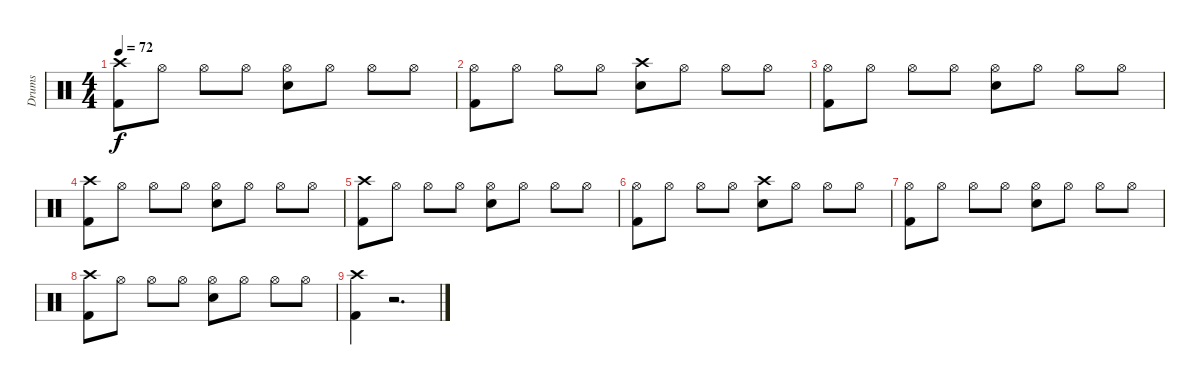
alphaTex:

\track ("Drums" "Drums") {instrument percussion}
\staff {score}
\articulation defaults
\ts (4 4)
\tempo 72
\clef neutral
\ks c
("Crash high (hit)" "Kick (hit) 2").8{dy f} "Hi-Hat (open)".8 "Hi-Hat (open)".8 "Hi-Hat (open)".8 ("Hi-Hat (open)" "Electric Snare (hit)").8 "Hi-Hat (open)".8 "Hi-Hat (open)".8 "Hi-Hat (open)".8 |
("Hi-Hat (open)" "Kick (hit) 2").8 "Hi-Hat (open)".8 "Hi-Hat (open)".8 "Hi-Hat (open)".8 ("Crash high (hit)" "Electric Snare (hit)").8 "Hi-Hat (open)".8 "Hi-Hat (open)".8 "Hi-Hat (open)".8 |
("Hi-Hat (open)" "Kick (hit) 2").8 "Hi-Hat (open)".8 "Hi-Hat (open)".8 "Hi-Hat (open)".8 ("Hi-Hat (open)" "Electric Snare (hit)").8 "Hi-Hat (open)".8 "Hi-Hat (open)".8 "Hi-Hat (open)".8 |
("Crash high (hit)" "Kick (hit) 2").8 "Hi-Hat (open)".8 "Hi-Hat (open)".8 "Hi-Hat (open)".8 ("Hi-Hat (open)" "Electric Snare (hit)").8 "Hi-Hat (open)".8 "Hi-Hat (open)".8 "Hi-Hat (open)".8 |
("Crash high (hit)" "Kick (hit) 2").8 "Hi-Hat (open)".8 "Hi-Hat (open)".8 "Hi-Hat (open)".8 ("Hi-Hat (open)" "Electric Snare (hit)").8 "Hi-Hat (open)".8 "Hi-Hat (open)".8 "Hi-Hat (open)".8 |
("Hi-Hat (open)" "Kick (hit) 2").8 "Hi-Hat (open)".8 "Hi-Hat (open)".8 "Hi-Hat (open)".8 ("Crash high (hit)" "Electric Snare (hit)").8 "Hi-Hat (open)".8 "Hi-Hat (open)".8 "Hi-Hat (open)".8 |
("Hi-Hat (open)" "Kick (hit) 2").8 "Hi-Hat (open)".8 "Hi-Hat (open)".8 "Hi-Hat (open)".8 ("Hi-Hat (open)" "Electric Snare (hit)").8 "Hi-Hat (open)".8 "Hi-Hat (open)".8 "Hi-Hat (open)".8 |
("Crash high (hit)" "Kick (hit) 2").8 "Hi-Hat (open)".8 "Hi-Hat (open)".8 "Hi-Hat (open)".8 ("Hi-Hat (open)" "Electric Snare (hit)").8 "Hi-Hat (open)".8 "Hi-Hat (open)".8 "Hi-Hat (open)".8 |
("Crash high (hit)" "Kick (hit) 2").4 r.2{d}
